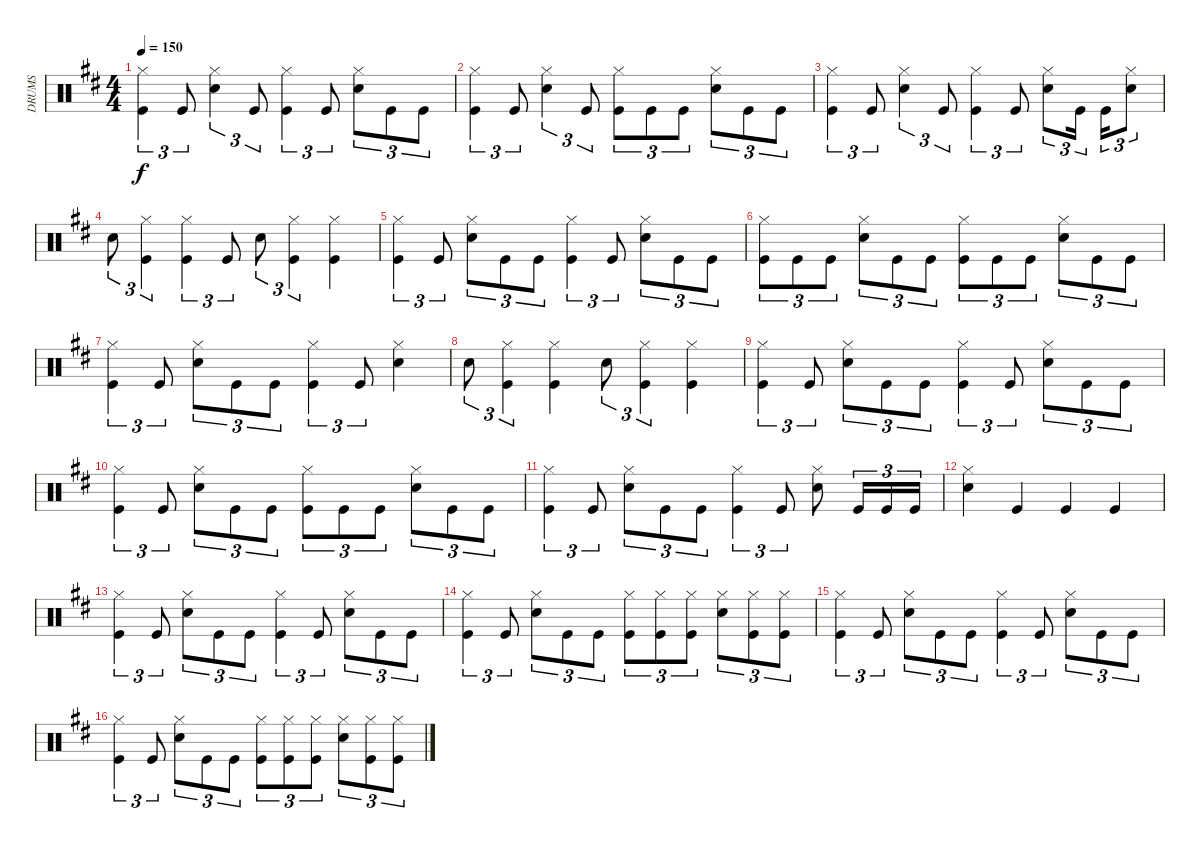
\track ("DRUMS" "DRUMS") {instrument percussion}
\staff {score}
\articulation defaults
\ts (4 4)
\tempo 150
\clef neutral
\ks d
("Hi-Hat (closed)" "Kick (hit)").4{tu (3 2) dy f} "Kick (hit)".8{tu (3 2)} ("Hi-Hat (closed)" "Snare (hit) 2").4{tu (3 2)} "Kick (hit)".8{tu (3 2)} ("Hi-Hat (closed)" "Kick (hit)").4{tu (3 2)} "Kick (hit)".8{tu (3 2)} ("Hi-Hat (closed)" "Snare (hit) 2").8{tu (3 2)} "Kick (hit)".8{tu (3 2)} "Kick (hit)".8{tu (3 2)} |
("Hi-Hat (closed)" "Kick (hit)").4{tu (3 2)} "Kick (hit)".8{tu (3 2)} ("Hi-Hat (closed)" "Snare (hit) 2").4{tu (3 2)} "Kick (hit)".8{tu (3 2)} ("Hi-Hat (closed)" "Kick (hit)").8{tu (3 2)} "Kick (hit)".8{tu (3 2)} "Kick (hit)".8{tu (3 2)} ("Hi-Hat (closed)" "Snare (hit) 2").8{tu (3 2)} "Kick (hit)".8{tu (3 2)} "Kick (hit)".8{tu (3 2)} |
("Hi-Hat (closed)" "Kick (hit)").4{tu (3 2)} "Kick (hit)".8{tu (3 2)} ("Hi-Hat (closed)" "Snare (hit) 2").4{tu (3 2)} "Kick (hit)".8{tu (3 2)} ("Hi-Hat (closed)" "Kick (hit)").4{tu (3 2)} "Kick (hit)".8{tu (3 2)} ("Hi-Hat (closed)" "Snare (hit) 2").8{tu (3 2)} "Kick (hit)".16{tu (3 2) beam splitsecondary} "Kick (hit)".16{tu (3 2)} ("Hi-Hat (closed)" "Snare (hit) 2").8{tu (3 2)} |
"Snare (hit) 2".8{tu (3 2)} ("Hi-Hat (closed)" "Kick (hit)").4{tu (3 2)} ("Hi-Hat (closed)" "Kick (hit)").4{tu (3 2)} "Kick (hit)".8{tu (3 2)} "Snare (hit) 2".8{tu (3 2)} ("Hi-Hat (closed)" "Kick (hit)").4{tu (3 2)} ("Hi-Hat (closed)" "Kick (hit)").4 |
("Hi-Hat (closed)" "Kick (hit)").4{tu (3 2)} "Kick (hit)".8{tu (3 2)} ("Hi-Hat (closed)" "Snare (hit) 2").8{tu (3 2)} "Kick (hit)".8{tu (3 2)} "Kick (hit)".8{tu (3 2)} ("Hi-Hat (closed)" "Kick (hit)").4{tu (3 2)} "Kick (hit)".8{tu (3 2)} ("Hi-Hat (closed)" "Snare (hit) 2").8{tu (3 2)} "Kick (hit)".8{tu (3 2)} "Kick (hit)".8{tu (3 2)} |
("Hi-Hat (closed)" "Kick (hit)").8{tu (3 2)} "Kick (hit)".8{tu (3 2)} "Kick (hit)".8{tu (3 2)} ("Hi-Hat (closed)" "Snare (hit) 2").8{tu (3 2)} "Kick (hit)".8{tu (3 2)} "Kick (hit)".8{tu (3 2)} ("Hi-Hat (closed)" "Kick (hit)").8{tu (3 2)} "Kick (hit)".8{tu (3 2)} "Kick (hit)".8{tu (3 2)} ("Hi-Hat (closed)" "Snare (hit) 2").8{tu (3 2)} "Kick (hit)".8{tu (3 2)} "Kick (hit)".8{tu (3 2)} |
("Hi-Hat (closed)" "Kick (hit)").4{tu (3 2)} "Kick (hit)".8{tu (3 2)} ("Hi-Hat (closed)" "Snare (hit) 2").8{tu (3 2)} "Kick (hit)".8{tu (3 2)} "Kick (hit)".8{tu (3 2)} ("Hi-Hat (closed)" "Kick (hit)").4{tu (3 2)} "Kick (hit)".8{tu (3 2)} ("Hi-Hat (closed)" "Snare (hit) 2").4 |
"Snare (hit) 2".8{tu (3 2)} ("Hi-Hat (closed)" "Kick (hit)").4{tu (3 2)} ("Hi-Hat (closed)" "Kick (hit)").4 "Snare (hit) 2".8{tu (3 2)} ("Hi-Hat (closed)" "Kick (hit)").4{tu (3 2)} ("Hi-Hat (closed)" "Kick (hit)").4 |
("Hi-Hat (closed)" "Kick (hit)").4{tu (3 2)} "Kick (hit)".8{tu (3 2)} ("Hi-Hat (closed)" "Snare (hit) 2").8{tu (3 2)} "Kick (hit)".8{tu (3 2)} "Kick (hit)".8{tu (3 2)} ("Hi-Hat (closed)" "Kick (hit)").4{tu (3 2)} "Kick (hit)".8{tu (3 2)} ("Hi-Hat (closed)" "Snare (hit) 2").8{tu (3 2)} "Kick (hit)".8{tu (3 2)} "Kick (hit)".8{tu (3 2)} |
("Hi-Hat (closed)" "Kick (hit)").4{tu (3 2)} "Kick (hit)".8{tu (3 2)} ("Hi-Hat (closed)" "Snare (hit) 2").8{tu (3 2)} "Kick (hit)".8{tu (3 2)} "Kick (hit)".8{tu (3 2)} ("Hi-Hat (closed)" "Kick (hit)").8{tu (3 2)} "Kick (hit)".8{tu (3 2)} "Kick (hit)".8{tu (3 2)} ("Hi-Hat (closed)" "Snare (hit) 2").8{tu (3 2)} "Kick (hit)".8{tu (3 2)} "Kick (hit)".8{tu (3 2)} |
("Hi-Hat (closed)" "Kick (hit)").4{tu (3 2)} "Kick (hit)".8{tu (3 2)} ("Hi-Hat (closed)" "Snare (hit) 2").8{tu (3 2)} "Kick (hit)".8{tu (3 2)} "Kick (hit)".8{tu (3 2)} ("Hi-Hat (closed)" "Kick (hit)").4{tu (3 2)} "Kick (hit)".8{tu (3 2)} ("Hi-Hat (closed)" "Snare (hit) 2").8 "Kick (hit)".16{tu (3 2)} "Kick (hit)".16{tu (3 2)} "Kick (hit)".16{tu (3 2)} |
("Hi-Hat (closed)" "Snare (hit) 2").4 "Kick (hit)".4 "Kick (hit)".4 "Kick (hit)".4 |
("Hi-Hat (closed)" "Kick (hit)").4{tu (3 2)} "Kick (hit)".8{tu (3 2)} ("Hi-Hat (closed)" "Snare (hit) 2").8{tu (3 2)} "Kick (hit)".8{tu (3 2)} "Kick (hit)".8{tu (3 2)} ("Hi-Hat (closed)" "Kick (hit)").4{tu (3 2)} "Kick (hit)".8{tu (3 2)} ("Hi-Hat (closed)" "Snare (hit) 2").8{tu (3 2)} "Kick (hit)".8{tu (3 2)} "Kick (hit)".8{tu (3 2)} |
("Hi-Hat (closed)" "Kick (hit)").4{tu (3 2)} "Kick (hit)".8{tu (3 2)} ("Hi-Hat (closed)" "Snare (hit) 2").8{tu (3 2)} "Kick (hit)".8{tu (3 2)} "Kick (hit)".8{tu (3 2)} ("Hi-Hat (closed)" "Kick (hit)").8{tu (3 2)} ("Hi-Hat (closed)" "Kick (hit)").8{tu (3 2)} ("Hi-Hat (closed)" "Kick (hit)").8{tu (3 2)} ("Hi-Hat (closed)" "Snare (hit) 2").8{tu (3 2)} ("Hi-Hat (closed)" "Kick (hit)").8{tu (3 2)} ("Hi-Hat (closed)" "Kick (hit)").8{tu (3 2)} |
("Hi-Hat (closed)" "Kick (hit)").4{tu (3 2)} "Kick (hit)".8{tu (3 2)} ("Hi-Hat (closed)" "Snare (hit) 2").8{tu (3 2)} "Kick (hit)".8{tu (3 2)} "Kick (hit)".8{tu (3 2)} ("Hi-Hat (closed)" "Kick (hit)").4{tu (3 2)} "Kick (hit)".8{tu (3 2)} ("Hi-Hat (closed)" "Snare (hit) 2").8{tu (3 2)} "Kick (hit)".8{tu (3 2)} "Kick (hit)".8{tu (3 2)} |
("Hi-Hat (closed)" "Kick (hit)").4{tu (3 2)} "Kick (hit)".8{tu (3 2)} ("Hi-Hat (closed)" "Snare (hit) 2").8{tu (3 2)} "Kick (hit)".8{tu (3 2)} "Kick (hit)".8{tu (3 2)} ("Hi-Hat (closed)" "Kick (hit)").8{tu (3 2)} ("Hi-Hat (closed)" "Kick (hit)").8{tu (3 2)} ("Hi-Hat (closed)" "Kick (hit)").8{tu (3 2)} ("Hi-Hat (closed)" "Snare (hit) 2").8{tu (3 2)} ("Hi-Hat (closed)" "Kick (hit)").8{tu (3 2)} ("Hi-Hat (closed)" "Kick (hit)").8{tu (3 2)}
